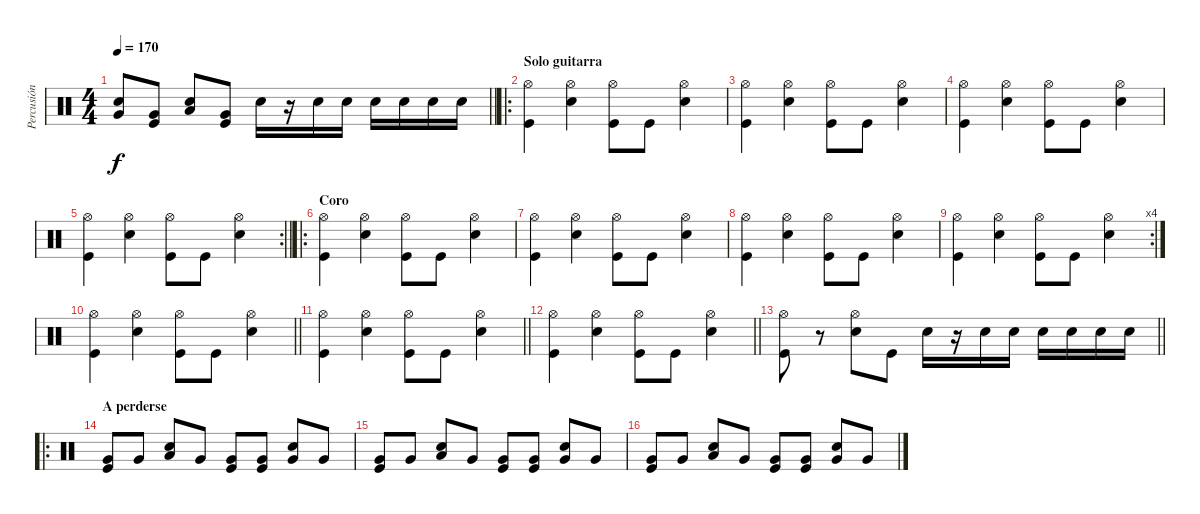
\track ("Percusión" "Percusión") {instrument percussion}
\staff {score}
\articulation defaults
\ts (4 4)
\tempo 170
\clef neutral
\barLineRight lightlight
\ks c
("Very Low Tom (hit)" "Electric Snare (hit)").8{dy f} ("Very Low Tom (hit)" "Kick (hit)").8 ("Low Tom (hit)" "Electric Snare (hit)").8 ("Very Low Tom (hit)" "Kick (hit)").8 "Electric Snare (hit)".16 r.16 "Electric Snare (hit)".16 "Electric Snare (hit)".16 "Electric Snare (hit)".16 "Electric Snare (hit)".16 "Electric Snare (hit)".16 "Electric Snare (hit)".16 |
\ro
\section ("" "Solo guitarra")
("Hi-Hat (open)" "Kick (hit)").4 ("Hi-Hat (open)" "Electric Snare (hit)").4 ("Hi-Hat (open)" "Kick (hit)").8 "Kick (hit)".8 ("Hi-Hat (open)" "Electric Snare (hit)").4 |
("Hi-Hat (open)" "Kick (hit)").4 ("Hi-Hat (open)" "Electric Snare (hit)").4 ("Hi-Hat (open)" "Kick (hit)").8 "Kick (hit)".8 ("Hi-Hat (open)" "Electric Snare (hit)").4 |
("Hi-Hat (open)" "Kick (hit)").4 ("Hi-Hat (open)" "Electric Snare (hit)").4 ("Hi-Hat (open)" "Kick (hit)").8 "Kick (hit)".8 ("Hi-Hat (open)" "Electric Snare (hit)").4 |
\rc 2
\barLineRight lightlight
("Hi-Hat (open)" "Kick (hit)").4 ("Hi-Hat (open)" "Electric Snare (hit)").4 ("Hi-Hat (open)" "Kick (hit)").8 "Kick (hit)".8 ("Hi-Hat (open)" "Electric Snare (hit)").4 |
\ro
\section ("" "Coro")
("Hi-Hat (open)" "Kick (hit)").4 ("Hi-Hat (open)" "Electric Snare (hit)").4 ("Hi-Hat (open)" "Kick (hit)").8 "Kick (hit)".8 ("Hi-Hat (open)" "Electric Snare (hit)").4 |
("Hi-Hat (open)" "Kick (hit)").4 ("Hi-Hat (open)" "Electric Snare (hit)").4 ("Hi-Hat (open)" "Kick (hit)").8 "Kick (hit)".8 ("Hi-Hat (open)" "Electric Snare (hit)").4 |
("Hi-Hat (open)" "Kick (hit)").4 ("Hi-Hat (open)" "Electric Snare (hit)").4 ("Hi-Hat (open)" "Kick (hit)").8 "Kick (hit)".8 ("Hi-Hat (open)" "Electric Snare (hit)").4 |
\rc 4
("Hi-Hat (open)" "Kick (hit)").4 ("Hi-Hat (open)" "Electric Snare (hit)").4 ("Hi-Hat (open)" "Kick (hit)").8 "Kick (hit)".8 ("Hi-Hat (open)" "Electric Snare (hit)").4 |
\barLineRight lightlight
("Hi-Hat (open)" "Kick (hit)").4 ("Hi-Hat (open)" "Electric Snare (hit)").4 ("Hi-Hat (open)" "Kick (hit)").8 "Kick (hit)".8 ("Hi-Hat (open)" "Electric Snare (hit)").4 |
\barLineRight lightlight
("Hi-Hat (open)" "Kick (hit)").4 ("Hi-Hat (open)" "Electric Snare (hit)").4 ("Hi-Hat (open)" "Kick (hit)").8 "Kick (hit)".8 ("Hi-Hat (open)" "Electric Snare (hit)").4 |
\barLineRight lightlight
("Hi-Hat (open)" "Kick (hit)").4 ("Hi-Hat (open)" "Electric Snare (hit)").4 ("Hi-Hat (open)" "Kick (hit)").8 "Kick (hit)".8 ("Hi-Hat (open)" "Electric Snare (hit)").4 |
\barLineRight lightlight
("Hi-Hat (open)" "Kick (hit)").8 r.8 ("Hi-Hat (open)" "Electric Snare (hit)").8 "Kick (hit)".8 "Electric Snare (hit)".16 r.16 "Electric Snare (hit)".16 "Electric Snare (hit)".16 "Electric Snare (hit)".16 "Electric Snare (hit)".16 "Electric Snare (hit)".16 "Electric Snare (hit)".16 |
\ro
\section ("" "A perderse")
("Very Low Tom (hit)" "Kick (hit)").8 "Very Low Tom (hit)".8 ("Low Tom (hit)" "Electric Snare (hit)").8 "Very Low Tom (hit)".8 ("Very Low Tom (hit)" "Kick (hit)").8 ("Very Low Tom (hit)" "Kick (hit)").8 ("Very Low Tom (hit)" "Electric Snare (hit)").8 "Very Low Tom (hit)".8 |
("Very Low Tom (hit)" "Kick (hit)").8 "Very Low Tom (hit)".8 ("Low Tom (hit)" "Electric Snare (hit)").8 "Very Low Tom (hit)".8 ("Very Low Tom (hit)" "Kick (hit)").8 ("Very Low Tom (hit)" "Kick (hit)").8 ("Very Low Tom (hit)" "Electric Snare (hit)").8 "Very Low Tom (hit)".8 |
("Very Low Tom (hit)" "Kick (hit)").8 "Very Low Tom (hit)".8 ("Low Tom (hit)" "Electric Snare (hit)").8 "Very Low Tom (hit)".8 ("Very Low Tom (hit)" "Kick (hit)").8 ("Very Low Tom (hit)" "Kick (hit)").8 ("Very Low Tom (hit)" "Electric Snare (hit)").8 "Very Low Tom (hit)".8
